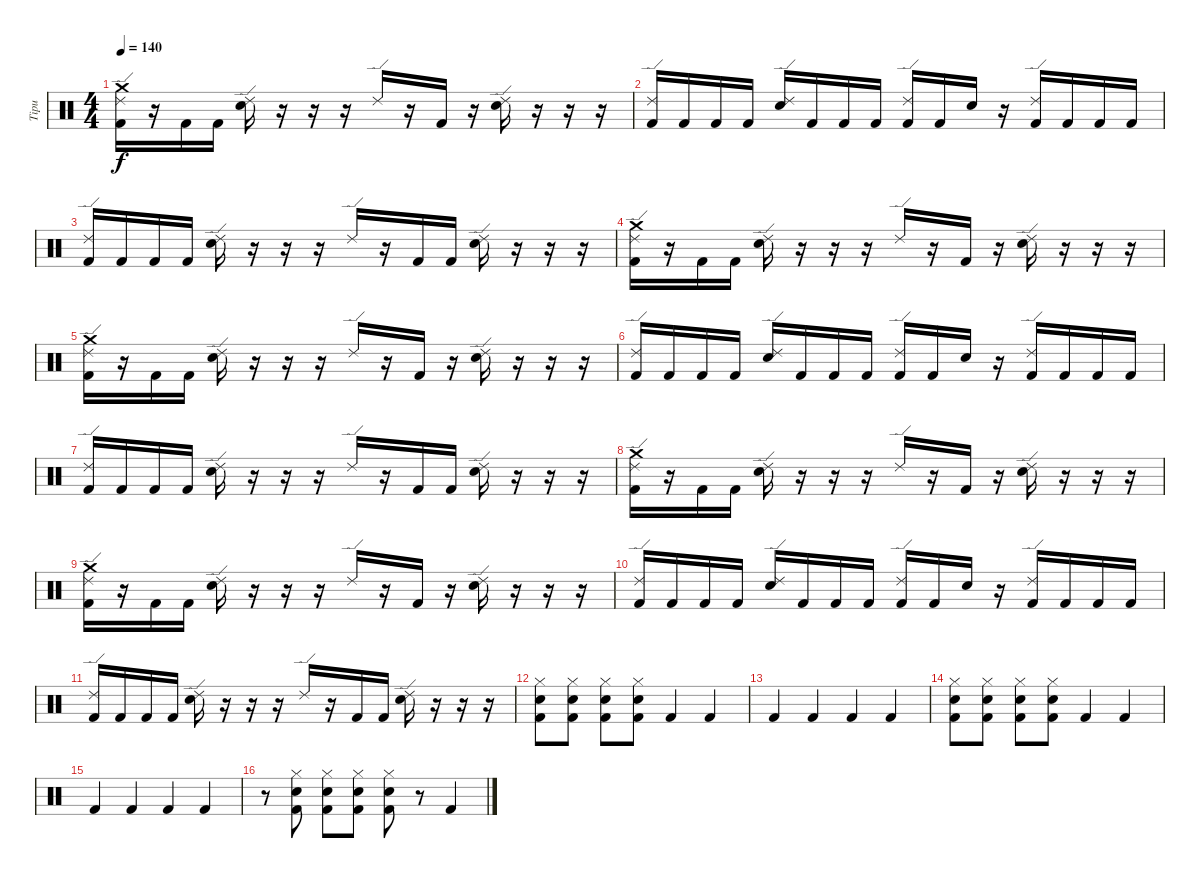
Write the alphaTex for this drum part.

\track ("Tipu" "Tipu") {instrument percussion}
\staff {score}
\articulation defaults
\ts (4 4)
\tempo 140
\clef neutral
\ks c
("Kick (hit) 2" "Ride (edge) 2" "Crash medium (hit)").16{dy f} r.16 "Kick (hit) 2".16 "Kick (hit) 2".16 ("Electric Snare (hit)" "Ride (edge) 2").16 r.16 r.16 r.16 "Ride (edge) 2".16 r.16 "Kick (hit) 2".16 r.16 ("Electric Snare (hit)" "Ride (edge) 2").16 r.16 r.16 r.16 |
("Kick (hit) 2" "Ride (edge) 2").16 "Kick (hit) 2".16 "Kick (hit) 2".16 "Kick (hit) 2".16 ("Electric Snare (hit)" "Ride (edge) 2").16 "Kick (hit) 2".16 "Kick (hit) 2".16 "Kick (hit) 2".16 ("Kick (hit) 2" "Ride (edge) 2").16 "Kick (hit) 2".16 "Electric Snare (hit)".16 r.16 ("Kick (hit) 2" "Ride (edge) 2").16 "Kick (hit) 2".16 "Kick (hit) 2".16 "Kick (hit) 2".16 |
("Kick (hit) 2" "Ride (edge) 2").16 "Kick (hit) 2".16 "Kick (hit) 2".16 "Kick (hit) 2".16 ("Electric Snare (hit)" "Ride (edge) 2").16 r.16 r.16 r.16 "Ride (edge) 2".16 r.16 "Kick (hit) 2".16 "Kick (hit) 2".16 ("Electric Snare (hit)" "Ride (edge) 2").16 r.16 r.16 r.16 |
("Kick (hit) 2" "Ride (edge) 2" "Crash medium (hit)").16 r.16 "Kick (hit) 2".16 "Kick (hit) 2".16 ("Electric Snare (hit)" "Ride (edge) 2").16 r.16 r.16 r.16 "Ride (edge) 2".16 r.16 "Kick (hit) 2".16 r.16 ("Electric Snare (hit)" "Ride (edge) 2").16 r.16 r.16 r.16 |
("Kick (hit) 2" "Ride (edge) 2" "Crash medium (hit)").16 r.16 "Kick (hit) 2".16 "Kick (hit) 2".16 ("Electric Snare (hit)" "Ride (edge) 2").16 r.16 r.16 r.16 "Ride (edge) 2".16 r.16 "Kick (hit) 2".16 r.16 ("Electric Snare (hit)" "Ride (edge) 2").16 r.16 r.16 r.16 |
("Kick (hit) 2" "Ride (edge) 2").16 "Kick (hit) 2".16 "Kick (hit) 2".16 "Kick (hit) 2".16 ("Electric Snare (hit)" "Ride (edge) 2").16 "Kick (hit) 2".16 "Kick (hit) 2".16 "Kick (hit) 2".16 ("Kick (hit) 2" "Ride (edge) 2").16 "Kick (hit) 2".16 "Electric Snare (hit)".16 r.16 ("Kick (hit) 2" "Ride (edge) 2").16 "Kick (hit) 2".16 "Kick (hit) 2".16 "Kick (hit) 2".16 |
("Kick (hit) 2" "Ride (edge) 2").16 "Kick (hit) 2".16 "Kick (hit) 2".16 "Kick (hit) 2".16 ("Electric Snare (hit)" "Ride (edge) 2").16 r.16 r.16 r.16 "Ride (edge) 2".16 r.16 "Kick (hit) 2".16 "Kick (hit) 2".16 ("Electric Snare (hit)" "Ride (edge) 2").16 r.16 r.16 r.16 |
("Kick (hit) 2" "Ride (edge) 2" "Crash medium (hit)").16 r.16 "Kick (hit) 2".16 "Kick (hit) 2".16 ("Electric Snare (hit)" "Ride (edge) 2").16 r.16 r.16 r.16 "Ride (edge) 2".16 r.16 "Kick (hit) 2".16 r.16 ("Electric Snare (hit)" "Ride (edge) 2").16 r.16 r.16 r.16 |
("Kick (hit) 2" "Ride (edge) 2" "Crash medium (hit)").16 r.16 "Kick (hit) 2".16 "Kick (hit) 2".16 ("Electric Snare (hit)" "Ride (edge) 2").16 r.16 r.16 r.16 "Ride (edge) 2".16 r.16 "Kick (hit) 2".16 r.16 ("Electric Snare (hit)" "Ride (edge) 2").16 r.16 r.16 r.16 |
("Kick (hit) 2" "Ride (edge) 2").16 "Kick (hit) 2".16 "Kick (hit) 2".16 "Kick (hit) 2".16 ("Electric Snare (hit)" "Ride (edge) 2").16 "Kick (hit) 2".16 "Kick (hit) 2".16 "Kick (hit) 2".16 ("Kick (hit) 2" "Ride (edge) 2").16 "Kick (hit) 2".16 "Electric Snare (hit)".16 r.16 ("Kick (hit) 2" "Ride (edge) 2").16 "Kick (hit) 2".16 "Kick (hit) 2".16 "Kick (hit) 2".16 |
("Kick (hit) 2" "Ride (edge) 2").16 "Kick (hit) 2".16 "Kick (hit) 2".16 "Kick (hit) 2".16 ("Electric Snare (hit)" "Ride (edge) 2").16 r.16 r.16 r.16 "Ride (edge) 2".16 r.16 "Kick (hit) 2".16 "Kick (hit) 2".16 ("Electric Snare (hit)" "Ride (edge) 2").16 r.16 r.16 r.16 |
("Kick (hit) 2" "Electric Snare (hit)" "Hi-Hat (closed)").8 ("Kick (hit) 2" "Electric Snare (hit)" "Hi-Hat (closed)").8 ("Kick (hit) 2" "Electric Snare (hit)" "Hi-Hat (closed)").8 ("Kick (hit) 2" "Electric Snare (hit)" "Hi-Hat (closed)").8 "Kick (hit) 2".4 "Kick (hit) 2".4 |
"Kick (hit) 2".4 "Kick (hit) 2".4 "Kick (hit) 2".4 "Kick (hit) 2".4 |
("Kick (hit) 2" "Electric Snare (hit)" "Hi-Hat (closed)").8 ("Kick (hit) 2" "Electric Snare (hit)" "Hi-Hat (closed)").8 ("Kick (hit) 2" "Electric Snare (hit)" "Hi-Hat (closed)").8 ("Kick (hit) 2" "Electric Snare (hit)" "Hi-Hat (closed)").8 "Kick (hit) 2".4 "Kick (hit) 2".4 |
"Kick (hit) 2".4 "Kick (hit) 2".4 "Kick (hit) 2".4 "Kick (hit) 2".4 |
r.8 ("Kick (hit) 2" "Electric Snare (hit)" "Hi-Hat (closed)").8 ("Kick (hit) 2" "Electric Snare (hit)" "Hi-Hat (closed)").8 ("Kick (hit) 2" "Electric Snare (hit)" "Hi-Hat (closed)").8 ("Kick (hit) 2" "Electric Snare (hit)" "Hi-Hat (closed)").8 r.8 "Kick (hit) 2".4
